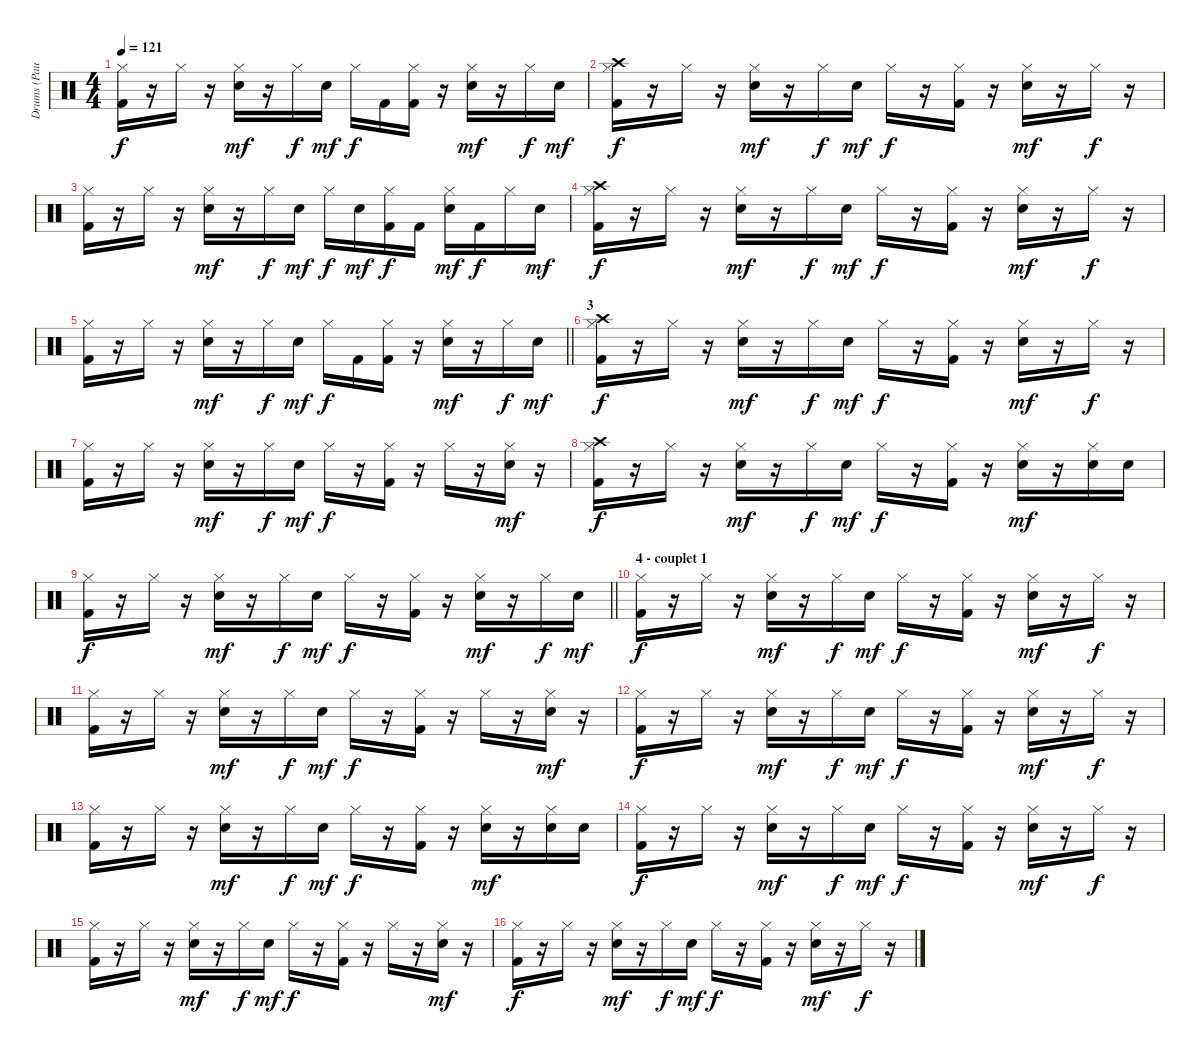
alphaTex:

\track ("Drums (Paul)" "Drums (Pau") {instrument percussion}
\staff {score}
\articulation defaults
\ts (4 4)
\tempo 121
\clef neutral
\ks c
("Hi-Hat (closed)" "Kick (hit) 2").16{dy f} r.16 "Hi-Hat (closed)".16 r.16 ("Hi-Hat (closed)" "Snare (hit) 2").16{dy mf} r.16 "Hi-Hat (closed)".16{dy f} "Snare (hit) 2".16{dy mf} "Hi-Hat (closed)".16{dy f} "Kick (hit) 2".16 ("Hi-Hat (closed)" "Kick (hit) 2").16 r.16 ("Hi-Hat (closed)" "Snare (hit) 2").16{dy mf} r.16 "Hi-Hat (closed)".16{dy f} "Snare (hit) 2".16{dy mf} |
("Hi-Hat (closed)" "Crash high (hit)" "Kick (hit) 2").16{dy f} r.16 "Hi-Hat (closed)".16 r.16 ("Hi-Hat (closed)" "Snare (hit) 2").16{dy mf} r.16 "Hi-Hat (closed)".16{dy f} "Snare (hit) 2".16{dy mf} "Hi-Hat (closed)".16{dy f} r.16 ("Hi-Hat (closed)" "Kick (hit) 2").16 r.16 ("Hi-Hat (closed)" "Snare (hit) 2").16{dy mf} r.16 "Hi-Hat (closed)".16{dy f} r.16 |
("Hi-Hat (closed)" "Kick (hit) 2").16 r.16 "Hi-Hat (closed)".16 r.16 ("Hi-Hat (closed)" "Snare (hit) 2").16{dy mf} r.16 "Hi-Hat (closed)".16{dy f} "Snare (hit) 2".16{dy mf} "Hi-Hat (closed)".16{dy f} "Snare (hit) 2".16{dy mf} ("Hi-Hat (closed)" "Kick (hit) 2").16{dy f} "Kick (hit) 2".16 ("Hi-Hat (closed)" "Snare (hit) 2").16{dy mf} "Kick (hit) 2".16{dy f} "Hi-Hat (closed)".16 "Snare (hit) 2".16{dy mf} |
("Hi-Hat (closed)" "Crash high (hit)" "Kick (hit) 2").16{dy f} r.16 "Hi-Hat (closed)".16 r.16 ("Hi-Hat (closed)" "Snare (hit) 2").16{dy mf} r.16 "Hi-Hat (closed)".16{dy f} "Snare (hit) 2".16{dy mf} "Hi-Hat (closed)".16{dy f} r.16 ("Hi-Hat (closed)" "Kick (hit) 2").16 r.16 ("Hi-Hat (closed)" "Snare (hit) 2").16{dy mf} r.16 "Hi-Hat (closed)".16{dy f} r.16 |
\barLineRight lightlight
("Hi-Hat (closed)" "Kick (hit) 2").16 r.16 "Hi-Hat (closed)".16 r.16 ("Hi-Hat (closed)" "Snare (hit) 2").16{dy mf} r.16 "Hi-Hat (closed)".16{dy f} "Snare (hit) 2".16{dy mf} "Hi-Hat (closed)".16{dy f} "Kick (hit) 2".16 ("Hi-Hat (closed)" "Kick (hit) 2").16 r.16 ("Hi-Hat (closed)" "Snare (hit) 2").16{dy mf} r.16 "Hi-Hat (closed)".16{dy f} "Snare (hit) 2".16{dy mf} |
\section ("" "3")
("Hi-Hat (closed)" "Crash high (hit)" "Kick (hit) 2").16{dy f} r.16 "Hi-Hat (closed)".16 r.16 ("Hi-Hat (closed)" "Snare (hit) 2").16{dy mf} r.16 "Hi-Hat (closed)".16{dy f} "Snare (hit) 2".16{dy mf} "Hi-Hat (closed)".16{dy f} r.16 ("Hi-Hat (closed)" "Kick (hit) 2").16 r.16 ("Hi-Hat (closed)" "Snare (hit) 2").16{dy mf} r.16 "Hi-Hat (closed)".16{dy f} r.16 |
("Hi-Hat (closed)" "Kick (hit) 2").16 r.16 "Hi-Hat (closed)".16 r.16 ("Hi-Hat (closed)" "Snare (hit) 2").16{dy mf} r.16 "Hi-Hat (closed)".16{dy f} "Snare (hit) 2".16{dy mf} "Hi-Hat (closed)".16{dy f} r.16 ("Hi-Hat (closed)" "Kick (hit) 2").16 r.16 "Hi-Hat (closed)".16 r.16 ("Hi-Hat (closed)" "Snare (hit) 2").16{dy mf} r.16 |
("Hi-Hat (closed)" "Crash high (hit)" "Kick (hit) 2").16{dy f} r.16 "Hi-Hat (closed)".16 r.16 ("Hi-Hat (closed)" "Snare (hit) 2").16{dy mf} r.16 "Hi-Hat (closed)".16{dy f} "Snare (hit) 2".16{dy mf} "Hi-Hat (closed)".16{dy f} r.16 ("Hi-Hat (closed)" "Kick (hit) 2").16 r.16 ("Hi-Hat (closed)" "Snare (hit) 2").16{dy mf} r.16 ("Hi-Hat (closed)" "Snare (hit) 2").16 "Snare (hit) 2".16 |
\barLineRight lightlight
("Hi-Hat (closed)" "Kick (hit) 2").16{dy f} r.16 "Hi-Hat (closed)".16 r.16 ("Hi-Hat (closed)" "Snare (hit) 2").16{dy mf} r.16 "Hi-Hat (closed)".16{dy f} "Snare (hit) 2".16{dy mf} "Hi-Hat (closed)".16{dy f} r.16 ("Hi-Hat (closed)" "Kick (hit) 2").16 r.16 ("Hi-Hat (closed)" "Snare (hit) 2").16{dy mf} r.16 "Hi-Hat (closed)".16{dy f} "Snare (hit) 2".16{dy mf} |
\section ("" "4 - couplet 1")
("Hi-Hat (closed)" "Kick (hit) 2").16{dy f} r.16 "Hi-Hat (closed)".16 r.16 ("Hi-Hat (closed)" "Snare (hit) 2").16{dy mf} r.16 "Hi-Hat (closed)".16{dy f} "Snare (hit) 2".16{dy mf} "Hi-Hat (closed)".16{dy f} r.16 ("Hi-Hat (closed)" "Kick (hit) 2").16 r.16 ("Hi-Hat (closed)" "Snare (hit) 2").16{dy mf} r.16 "Hi-Hat (closed)".16{dy f} r.16 |
("Hi-Hat (closed)" "Kick (hit) 2").16 r.16 "Hi-Hat (closed)".16 r.16 ("Hi-Hat (closed)" "Snare (hit) 2").16{dy mf} r.16 "Hi-Hat (closed)".16{dy f} "Snare (hit) 2".16{dy mf} "Hi-Hat (closed)".16{dy f} r.16 ("Hi-Hat (closed)" "Kick (hit) 2").16 r.16 "Hi-Hat (closed)".16 r.16 ("Hi-Hat (closed)" "Snare (hit) 2").16{dy mf} r.16 |
("Hi-Hat (closed)" "Kick (hit) 2").16{dy f} r.16 "Hi-Hat (closed)".16 r.16 ("Hi-Hat (closed)" "Snare (hit) 2").16{dy mf} r.16 "Hi-Hat (closed)".16{dy f} "Snare (hit) 2".16{dy mf} "Hi-Hat (closed)".16{dy f} r.16 ("Hi-Hat (closed)" "Kick (hit) 2").16 r.16 ("Hi-Hat (closed)" "Snare (hit) 2").16{dy mf} r.16 "Hi-Hat (closed)".16{dy f} r.16 |
("Hi-Hat (closed)" "Kick (hit) 2").16 r.16 "Hi-Hat (closed)".16 r.16 ("Hi-Hat (closed)" "Snare (hit) 2").16{dy mf} r.16 "Hi-Hat (closed)".16{dy f} "Snare (hit) 2".16{dy mf} "Hi-Hat (closed)".16{dy f} r.16 ("Hi-Hat (closed)" "Kick (hit) 2").16 r.16 ("Hi-Hat (closed)" "Snare (hit) 2").16{dy mf} r.16 ("Hi-Hat (closed)" "Snare (hit) 2").16 "Snare (hit) 2".16 |
("Hi-Hat (closed)" "Kick (hit) 2").16{dy f} r.16 "Hi-Hat (closed)".16 r.16 ("Hi-Hat (closed)" "Snare (hit) 2").16{dy mf} r.16 "Hi-Hat (closed)".16{dy f} "Snare (hit) 2".16{dy mf} "Hi-Hat (closed)".16{dy f} r.16 ("Hi-Hat (closed)" "Kick (hit) 2").16 r.16 ("Hi-Hat (closed)" "Snare (hit) 2").16{dy mf} r.16 "Hi-Hat (closed)".16{dy f} r.16 |
("Hi-Hat (closed)" "Kick (hit) 2").16 r.16 "Hi-Hat (closed)".16 r.16 ("Hi-Hat (closed)" "Snare (hit) 2").16{dy mf} r.16 "Hi-Hat (closed)".16{dy f} "Snare (hit) 2".16{dy mf} "Hi-Hat (closed)".16{dy f} r.16 ("Hi-Hat (closed)" "Kick (hit) 2").16 r.16 "Hi-Hat (closed)".16 r.16 ("Hi-Hat (closed)" "Snare (hit) 2").16{dy mf} r.16 |
("Hi-Hat (closed)" "Kick (hit) 2").16{dy f} r.16 "Hi-Hat (closed)".16 r.16 ("Hi-Hat (closed)" "Snare (hit) 2").16{dy mf} r.16 "Hi-Hat (closed)".16{dy f} "Snare (hit) 2".16{dy mf} "Hi-Hat (closed)".16{dy f} r.16 ("Hi-Hat (closed)" "Kick (hit) 2").16 r.16 ("Hi-Hat (closed)" "Snare (hit) 2").16{dy mf} r.16 "Hi-Hat (closed)".16{dy f} r.16
